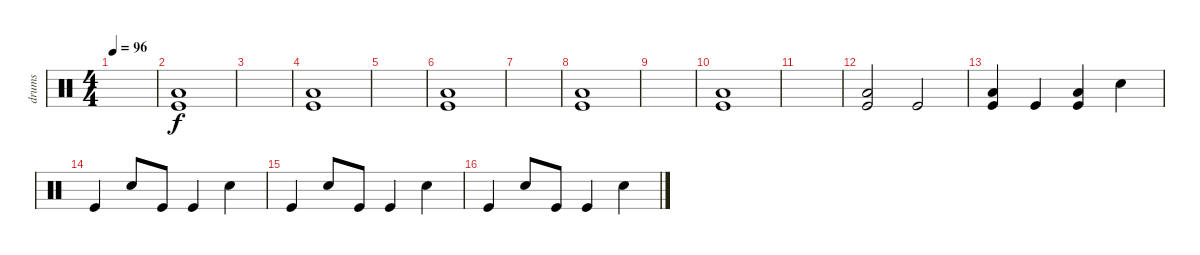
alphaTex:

\track ("drums" "drums") {instrument percussion}
\staff {score}
\articulation defaults
\ts (4 4)
\tempo 96
\clef neutral
\ks c
|
("Kick (hit)" "Low Floor Tom (hit)").1 |
|
("Kick (hit)" "Low Floor Tom (hit)").1 |
|
("Kick (hit)" "Low Floor Tom (hit)").1 |
|
("Kick (hit)" "Low Floor Tom (hit)").1 |
|
("Kick (hit)" "Low Floor Tom (hit)").1 |
|
("Low Floor Tom (hit)" "Kick (hit)").2 "Kick (hit)".2 |
("Low Floor Tom (hit)" "Kick (hit)").4 "Kick (hit)".4 ("Low Floor Tom (hit)" "Kick (hit)").4 "Snare (hit) 2".4 |
"Kick (hit)".4 "Snare (hit) 2".8 "Kick (hit)".8 "Kick (hit)".4 "Snare (hit) 2".4 |
"Kick (hit)".4 "Snare (hit) 2".8 "Kick (hit)".8 "Kick (hit)".4 "Snare (hit) 2".4 |
"Kick (hit)".4 "Snare (hit) 2".8 "Kick (hit)".8 "Kick (hit)".4 "Snare (hit) 2".4
